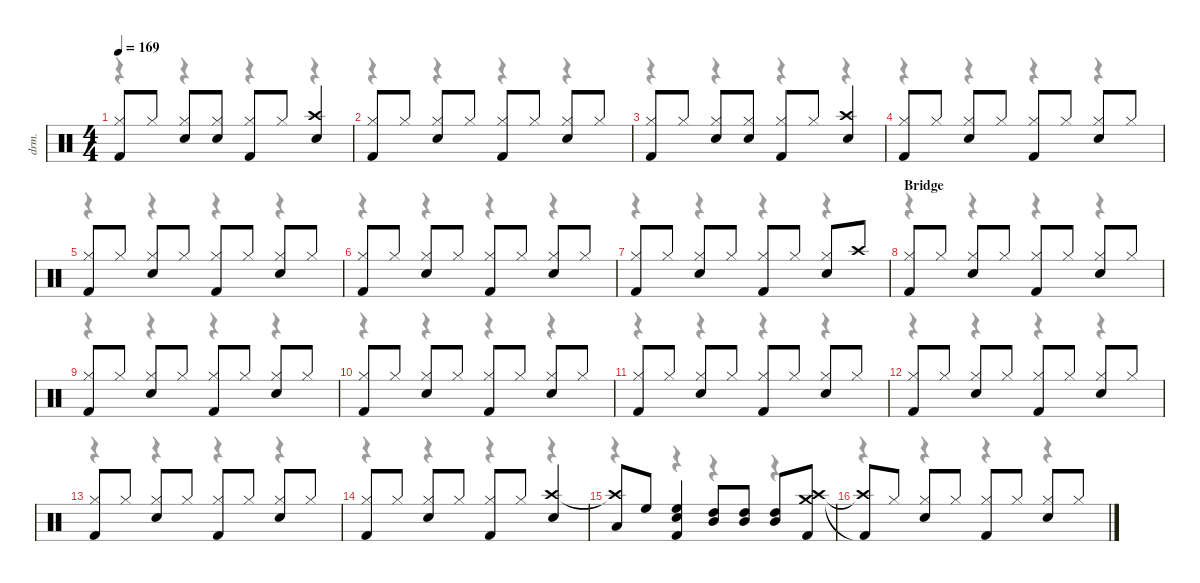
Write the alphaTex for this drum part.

\defaultSystemsLayout 4
\hideDynamics
\bracketExtendMode nobrackets
\otherSystemsTrackNameOrientation horizontal
\track ("Drums" "drm.") {instrument percussion}
\staff {score}
\articulation defaults
\voice
\ts (4 4)
\tempo 169
\clef neutral
\ks c
("Hi-Hat (closed)" "Kick (hit) 2").8{dy f} "Hi-Hat (closed)".8 ("Hi-Hat (closed)" "Snare (hit) 2").8 ("Hi-Hat (closed)" "Snare (hit) 2").8 ("Hi-Hat (closed)" "Kick (hit) 2").8 "Hi-Hat (closed)".8 ("Crash high (hit)" "Snare (hit) 2").4 |
("Hi-Hat (closed)" "Kick (hit) 2").8 "Hi-Hat (closed)".8 ("Hi-Hat (closed)" "Snare (hit) 2").8 "Hi-Hat (closed)".8 ("Hi-Hat (closed)" "Kick (hit) 2").8 "Hi-Hat (closed)".8 ("Hi-Hat (closed)" "Snare (hit) 2").8 "Hi-Hat (closed)".8 |
("Hi-Hat (closed)" "Kick (hit) 2").8 "Hi-Hat (closed)".8 ("Hi-Hat (closed)" "Snare (hit) 2").8 ("Hi-Hat (closed)" "Snare (hit) 2").8 ("Hi-Hat (closed)" "Kick (hit) 2").8 "Hi-Hat (closed)".8 ("Crash high (hit)" "Snare (hit) 2").4 |
("Hi-Hat (closed)" "Kick (hit) 2").8 "Hi-Hat (closed)".8 ("Hi-Hat (closed)" "Snare (hit) 2").8 "Hi-Hat (closed)".8 ("Hi-Hat (closed)" "Kick (hit) 2").8 "Hi-Hat (closed)".8 ("Hi-Hat (closed)" "Snare (hit) 2").8 "Hi-Hat (closed)".8 |
("Hi-Hat (closed)" "Kick (hit) 2").8 "Hi-Hat (closed)".8 ("Hi-Hat (closed)" "Snare (hit) 2").8 "Hi-Hat (closed)".8 ("Hi-Hat (closed)" "Kick (hit) 2").8 "Hi-Hat (closed)".8 ("Hi-Hat (closed)" "Snare (hit) 2").8 "Hi-Hat (closed)".8 |
("Hi-Hat (closed)" "Kick (hit) 2").8 "Hi-Hat (closed)".8 ("Hi-Hat (closed)" "Snare (hit) 2").8 "Hi-Hat (closed)".8 ("Hi-Hat (closed)" "Kick (hit) 2").8 "Hi-Hat (closed)".8 ("Hi-Hat (closed)" "Snare (hit) 2").8 "Hi-Hat (closed)".8 |
("Hi-Hat (closed)" "Kick (hit) 2").8 "Hi-Hat (closed)".8 ("Hi-Hat (closed)" "Snare (hit) 2").8 "Hi-Hat (closed)".8 ("Hi-Hat (closed)" "Kick (hit) 2").8 "Hi-Hat (closed)".8 ("Hi-Hat (closed)" "Snare (hit) 2").8 "Crash high (hit)".8 |
\section ("" "Bridge")
("Hi-Hat (closed)" "Kick (hit) 2").8 "Hi-Hat (closed)".8 ("Hi-Hat (closed)" "Snare (hit) 2").8 "Hi-Hat (closed)".8 ("Hi-Hat (closed)" "Kick (hit) 2").8 "Hi-Hat (closed)".8 ("Hi-Hat (closed)" "Snare (hit) 2").8 "Hi-Hat (closed)".8 |
("Hi-Hat (closed)" "Kick (hit) 2").8 "Hi-Hat (closed)".8 ("Hi-Hat (closed)" "Snare (hit) 2").8 "Hi-Hat (closed)".8 ("Hi-Hat (closed)" "Kick (hit) 2").8 "Hi-Hat (closed)".8 ("Hi-Hat (closed)" "Snare (hit) 2").8 "Hi-Hat (closed)".8 |
("Hi-Hat (closed)" "Kick (hit) 2").8 "Hi-Hat (closed)".8 ("Hi-Hat (closed)" "Snare (hit) 2").8 "Hi-Hat (closed)".8 ("Hi-Hat (closed)" "Kick (hit) 2").8 "Hi-Hat (closed)".8 ("Hi-Hat (closed)" "Snare (hit) 2").8 "Hi-Hat (closed)".8 |
("Hi-Hat (closed)" "Kick (hit) 2").8 "Hi-Hat (closed)".8 ("Hi-Hat (closed)" "Snare (hit) 2").8 "Hi-Hat (closed)".8 ("Hi-Hat (closed)" "Kick (hit) 2").8 "Hi-Hat (closed)".8 ("Hi-Hat (closed)" "Snare (hit) 2").8 "Hi-Hat (closed)".8 |
("Hi-Hat (closed)" "Kick (hit) 2").8 "Hi-Hat (closed)".8 ("Hi-Hat (closed)" "Snare (hit) 2").8 "Hi-Hat (closed)".8 ("Hi-Hat (closed)" "Kick (hit) 2").8 "Hi-Hat (closed)".8 ("Hi-Hat (closed)" "Snare (hit) 2").8 "Hi-Hat (closed)".8 |
("Hi-Hat (closed)" "Kick (hit) 2").8 "Hi-Hat (closed)".8 ("Hi-Hat (closed)" "Snare (hit) 2").8 "Hi-Hat (closed)".8 ("Hi-Hat (closed)" "Kick (hit) 2").8 "Hi-Hat (closed)".8 ("Hi-Hat (closed)" "Snare (hit) 2").8 "Hi-Hat (closed)".8 |
("Hi-Hat (closed)" "Kick (hit) 2").8 "Hi-Hat (closed)".8 ("Hi-Hat (closed)" "Snare (hit) 2").8 "Hi-Hat (closed)".8 ("Hi-Hat (closed)" "Kick (hit) 2").8 "Hi-Hat (closed)".8 ("Crash high (hit)" "Snare (hit) 2").4 |
("Crash high (hit)"{t} "Low Tom (hit)").8 "High Floor Tom (hit)".8 ("High Floor Tom (hit)" "Snare (hit) 2" "Kick (hit) 2").4 ("High Tom (hit)" "Mid Tom (hit)").8 ("High Tom (hit)" "Mid Tom (hit)").8 ("High Tom (hit)" "Mid Tom (hit)").8 ("Crash high (hit)" "Crash medium (hit)" "Kick (hit) 2").8 |
("Crash high (hit)"{t} "Kick (hit) 2"{t}).8 "Hi-Hat (closed)".8 ("Hi-Hat (closed)" "Snare (hit) 2").8 "Hi-Hat (closed)".8 ("Hi-Hat (closed)" "Kick (hit) 2").8 "Hi-Hat (closed)".8 ("Hi-Hat (closed)" "Snare (hit) 2").8 "Hi-Hat (closed)".8
\voice
\clef neutral
\ottava regular
\simile none
\ks c
r.4{dy mf} r.4 r.4 r.4 |
r.4 r.4 r.4 r.4 |
r.4 r.4 r.4 r.4 |
r.4 r.4 r.4 r.4 |
r.4 r.4 r.4 r.4 |
r.4 r.4 r.4 r.4 |
r.4 r.4 r.4 r.4 |
r.4 r.4 r.4 r.4 |
r.4 r.4 r.4 r.4 |
r.4 r.4 r.4 r.4 |
r.4 r.4 r.4 r.4 |
r.4 r.4 r.4 r.4 |
r.4 r.4 r.4 r.4 |
r.4 r.4 r.4 r.4 |
r.4 r.4 r.4 r.4 |
r.4 r.4 r.4 r.4
